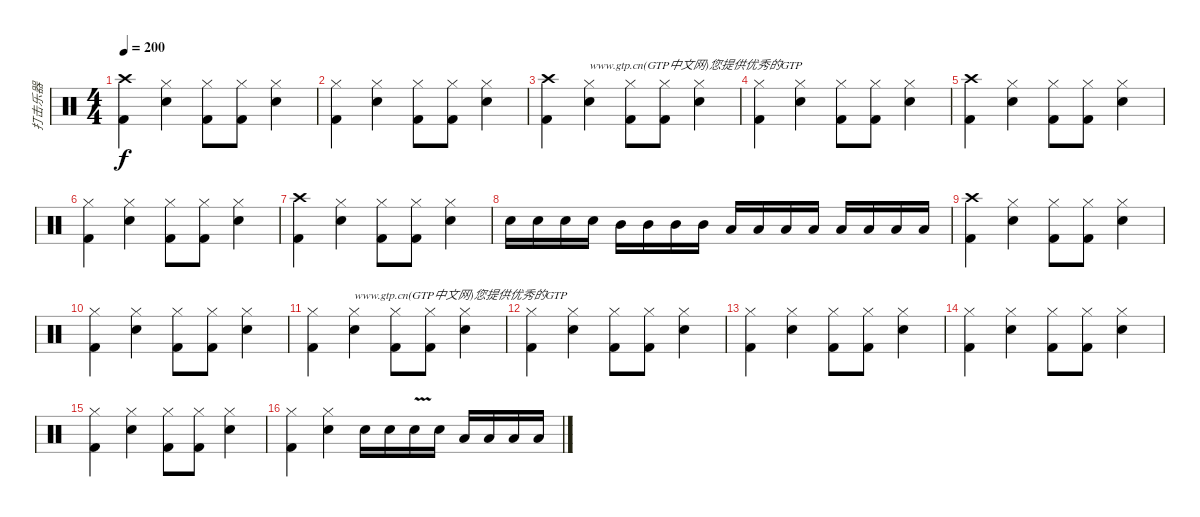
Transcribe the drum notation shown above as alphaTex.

\track ("打击乐器" "打击乐器") {instrument percussion}
\staff {score}
\articulation defaults
\ts (4 4)
\tempo 200
\clef neutral
\ks c
("Crash high (hit)" "Kick (hit) 2").4{dy f} ("Hi-Hat (closed)" "Snare (hit) 2").4 ("Hi-Hat (closed)" "Kick (hit) 2").8 ("Hi-Hat (closed)" "Kick (hit) 2").8 ("Hi-Hat (closed)" "Snare (hit) 2").4 |
("Hi-Hat (closed)" "Kick (hit) 2").4 ("Hi-Hat (closed)" "Snare (hit) 2").4 ("Hi-Hat (closed)" "Kick (hit) 2").8 ("Hi-Hat (closed)" "Kick (hit) 2").8 ("Hi-Hat (closed)" "Snare (hit) 2").4 |
("Crash high (hit)" "Kick (hit) 2").4 ("Hi-Hat (closed)" "Snare (hit) 2").4{txt "www.gtp.cn(GTP中文网)您提供优秀的GTP"} ("Hi-Hat (closed)" "Kick (hit) 2").8 ("Hi-Hat (closed)" "Kick (hit) 2").8 ("Hi-Hat (closed)" "Snare (hit) 2").4 |
("Hi-Hat (closed)" "Kick (hit) 2").4 ("Hi-Hat (closed)" "Snare (hit) 2").4 ("Hi-Hat (closed)" "Kick (hit) 2").8 ("Hi-Hat (closed)" "Kick (hit) 2").8 ("Hi-Hat (closed)" "Snare (hit) 2").4 |
("Crash high (hit)" "Kick (hit) 2").4 ("Hi-Hat (closed)" "Snare (hit) 2").4 ("Hi-Hat (closed)" "Kick (hit) 2").8 ("Hi-Hat (closed)" "Kick (hit) 2").8 ("Hi-Hat (closed)" "Snare (hit) 2").4 |
("Hi-Hat (closed)" "Kick (hit) 2").4 ("Hi-Hat (closed)" "Snare (hit) 2").4 ("Hi-Hat (closed)" "Kick (hit) 2").8 ("Hi-Hat (closed)" "Kick (hit) 2").8 ("Hi-Hat (closed)" "Snare (hit) 2").4 |
("Crash high (hit)" "Kick (hit) 2").4 ("Hi-Hat (closed)" "Snare (hit) 2").4 ("Hi-Hat (closed)" "Kick (hit) 2").8 ("Hi-Hat (closed)" "Kick (hit) 2").8 ("Hi-Hat (closed)" "Snare (hit) 2").4 |
"Snare (hit) 2".16 "Snare (hit) 2".16 "Snare (hit) 2".16 "Snare (hit) 2".16 "Mid Tom (hit)".16 "Mid Tom (hit)".16 "Mid Tom (hit)".16 "Mid Tom (hit)".16 "Low Tom (hit)".16 "Low Tom (hit)".16 "Low Tom (hit)".16 "Low Tom (hit)".16 "Low Floor Tom (hit)".16 "Low Floor Tom (hit)".16 "Low Floor Tom (hit)".16 "Low Floor Tom (hit)".16 |
("Crash high (hit)" "Kick (hit) 2").4 ("Hi-Hat (closed)" "Snare (hit) 2").4 ("Hi-Hat (closed)" "Kick (hit) 2").8 ("Hi-Hat (closed)" "Kick (hit) 2").8 ("Hi-Hat (closed)" "Snare (hit) 2").4 |
("Hi-Hat (closed)" "Kick (hit) 2").4 ("Hi-Hat (closed)" "Snare (hit) 2").4 ("Hi-Hat (closed)" "Kick (hit) 2").8 ("Hi-Hat (closed)" "Kick (hit) 2").8 ("Hi-Hat (closed)" "Snare (hit) 2").4 |
("Hi-Hat (closed)" "Kick (hit) 2").4 ("Hi-Hat (closed)" "Snare (hit) 2").4{txt "www.gtp.cn(GTP中文网)您提供优秀的GTP"} ("Hi-Hat (closed)" "Kick (hit) 2").8 ("Hi-Hat (closed)" "Kick (hit) 2").8 ("Hi-Hat (closed)" "Snare (hit) 2").4 |
("Hi-Hat (closed)" "Kick (hit) 2").4 ("Hi-Hat (closed)" "Snare (hit) 2").4 ("Hi-Hat (closed)" "Kick (hit) 2").8 ("Hi-Hat (closed)" "Kick (hit) 2").8 ("Hi-Hat (closed)" "Snare (hit) 2").4 |
("Hi-Hat (closed)" "Kick (hit) 2").4 ("Hi-Hat (closed)" "Snare (hit) 2").4 ("Hi-Hat (closed)" "Kick (hit) 2").8 ("Hi-Hat (closed)" "Kick (hit) 2").8 ("Hi-Hat (closed)" "Snare (hit) 2").4 |
("Hi-Hat (closed)" "Kick (hit) 2").4 ("Hi-Hat (closed)" "Snare (hit) 2").4 ("Hi-Hat (closed)" "Kick (hit) 2").8 ("Hi-Hat (closed)" "Kick (hit) 2").8 ("Hi-Hat (closed)" "Snare (hit) 2").4 |
("Hi-Hat (closed)" "Kick (hit) 2").4 ("Hi-Hat (closed)" "Snare (hit) 2").4 ("Hi-Hat (closed)" "Kick (hit) 2").8 ("Hi-Hat (closed)" "Kick (hit) 2").8 ("Hi-Hat (closed)" "Snare (hit) 2").4 |
("Hi-Hat (closed)" "Kick (hit) 2").4 ("Hi-Hat (closed)" "Snare (hit) 2").4 "Snare (hit) 2".16 "Snare (hit) 2".16 "Snare (hit) 2"{v}.16 "Snare (hit) 2".16 "Low Floor Tom (hit)".16 "Low Floor Tom (hit)".16 "Low Tom (hit)".16 "Low Tom (hit)".16
